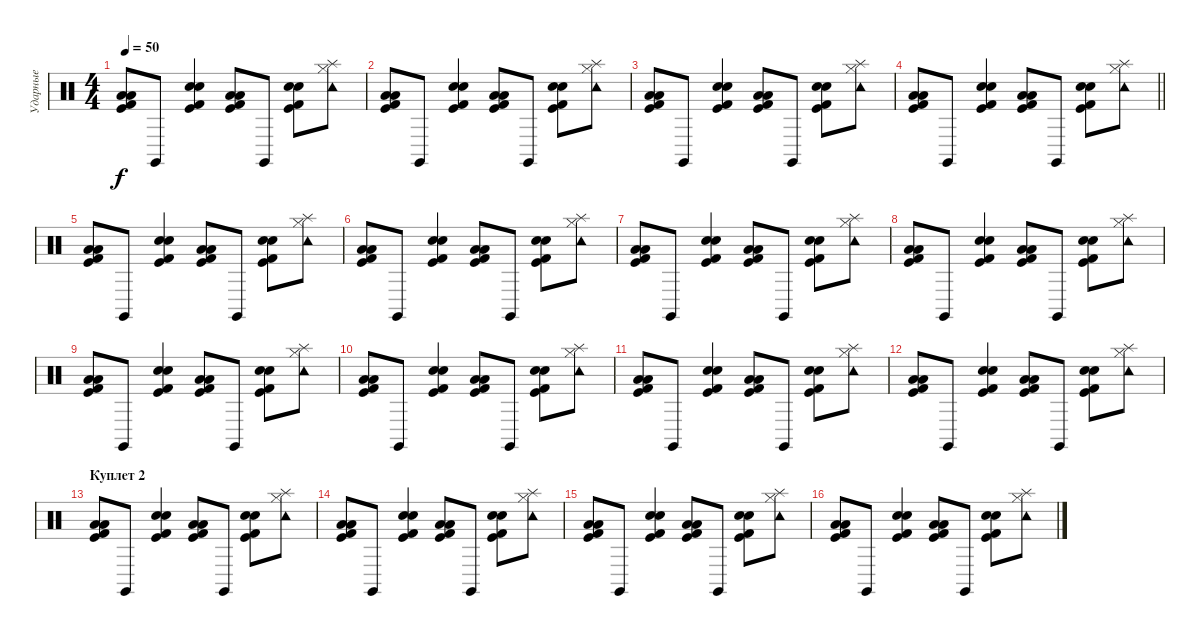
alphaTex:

\track ("Ударные" "Ударные") {instrument percussion}
\staff
\articulation defaults
\ts (4 4)
\tempo 50
\clef neutral
\ks c
("Kick (hit) 2" "Low Floor Tom (hit)" "Kick (hit)" "Low Tom (hit)").8{dy f} "Claves (hit)".8 ("Kick (hit) 2" "Electric Snare (hit)" "Kick (hit)" "Snare (hit) 2").4 ("Kick (hit) 2" "Low Floor Tom (hit)" "Kick (hit)" "Low Tom (hit)").8 "Claves (hit)".8 ("Kick (hit) 2" "Electric Snare (hit)" "Kick (hit)" "Snare (hit) 2").8 ("Hi-Hat (closed)" "Splash (hit)" "Tambourine (hit)").8 |
("Kick (hit) 2" "Low Floor Tom (hit)" "Kick (hit)" "Low Tom (hit)").8 "Claves (hit)".8 ("Kick (hit) 2" "Electric Snare (hit)" "Kick (hit)" "Snare (hit) 2").4 ("Kick (hit) 2" "Low Floor Tom (hit)" "Kick (hit)" "Low Tom (hit)").8 "Claves (hit)".8 ("Kick (hit) 2" "Electric Snare (hit)" "Kick (hit)" "Snare (hit) 2").8 ("Hi-Hat (closed)" "Splash (hit)" "Tambourine (hit)").8 |
("Kick (hit) 2" "Low Floor Tom (hit)" "Kick (hit)" "Low Tom (hit)").8 "Claves (hit)".8 ("Kick (hit) 2" "Electric Snare (hit)" "Kick (hit)" "Snare (hit) 2").4 ("Kick (hit) 2" "Low Floor Tom (hit)" "Kick (hit)" "Low Tom (hit)").8 "Claves (hit)".8 ("Kick (hit) 2" "Electric Snare (hit)" "Kick (hit)" "Snare (hit) 2").8 ("Hi-Hat (closed)" "Splash (hit)" "Tambourine (hit)").8 |
\barLineRight lightlight
("Kick (hit) 2" "Low Floor Tom (hit)" "Kick (hit)" "Low Tom (hit)").8 "Claves (hit)".8 ("Kick (hit) 2" "Electric Snare (hit)" "Kick (hit)" "Snare (hit) 2").4 ("Kick (hit) 2" "Low Floor Tom (hit)" "Kick (hit)" "Low Tom (hit)").8 "Claves (hit)".8 ("Kick (hit) 2" "Electric Snare (hit)" "Kick (hit)" "Snare (hit) 2").8 ("Hi-Hat (closed)" "Splash (hit)" "Tambourine (hit)").8 |
("Kick (hit) 2" "Low Floor Tom (hit)" "Kick (hit)" "Low Tom (hit)").8 "Claves (hit)".8 ("Kick (hit) 2" "Electric Snare (hit)" "Kick (hit)" "Snare (hit) 2").4 ("Kick (hit) 2" "Low Floor Tom (hit)" "Kick (hit)" "Low Tom (hit)").8 "Claves (hit)".8 ("Kick (hit) 2" "Electric Snare (hit)" "Kick (hit)" "Snare (hit) 2").8 ("Hi-Hat (closed)" "Splash (hit)" "Tambourine (hit)").8 |
("Kick (hit) 2" "Low Floor Tom (hit)" "Kick (hit)" "Low Tom (hit)").8 "Claves (hit)".8 ("Kick (hit) 2" "Electric Snare (hit)" "Kick (hit)" "Snare (hit) 2").4 ("Kick (hit) 2" "Low Floor Tom (hit)" "Kick (hit)" "Low Tom (hit)").8 "Claves (hit)".8 ("Kick (hit) 2" "Electric Snare (hit)" "Kick (hit)" "Snare (hit) 2").8 ("Hi-Hat (closed)" "Splash (hit)" "Tambourine (hit)").8 |
("Kick (hit) 2" "Low Floor Tom (hit)" "Kick (hit)" "Low Tom (hit)").8 "Claves (hit)".8 ("Kick (hit) 2" "Electric Snare (hit)" "Kick (hit)" "Snare (hit) 2").4 ("Kick (hit) 2" "Low Floor Tom (hit)" "Kick (hit)" "Low Tom (hit)").8 "Claves (hit)".8 ("Kick (hit) 2" "Electric Snare (hit)" "Kick (hit)" "Snare (hit) 2").8 ("Hi-Hat (closed)" "Splash (hit)" "Tambourine (hit)").8 |
("Kick (hit) 2" "Low Floor Tom (hit)" "Kick (hit)" "Low Tom (hit)").8 "Claves (hit)".8 ("Kick (hit) 2" "Electric Snare (hit)" "Kick (hit)" "Snare (hit) 2").4 ("Kick (hit) 2" "Low Floor Tom (hit)" "Kick (hit)" "Low Tom (hit)").8 "Claves (hit)".8 ("Kick (hit) 2" "Electric Snare (hit)" "Kick (hit)" "Snare (hit) 2").8 ("Hi-Hat (closed)" "Splash (hit)" "Tambourine (hit)").8 |
("Kick (hit) 2" "Low Floor Tom (hit)" "Kick (hit)" "Low Tom (hit)").8 "Claves (hit)".8 ("Kick (hit) 2" "Electric Snare (hit)" "Kick (hit)" "Snare (hit) 2").4 ("Kick (hit) 2" "Low Floor Tom (hit)" "Kick (hit)" "Low Tom (hit)").8 "Claves (hit)".8 ("Kick (hit) 2" "Electric Snare (hit)" "Kick (hit)" "Snare (hit) 2").8 ("Hi-Hat (closed)" "Splash (hit)" "Tambourine (hit)").8 |
("Kick (hit) 2" "Low Floor Tom (hit)" "Kick (hit)" "Low Tom (hit)").8 "Claves (hit)".8 ("Kick (hit) 2" "Electric Snare (hit)" "Kick (hit)" "Snare (hit) 2").4 ("Kick (hit) 2" "Low Floor Tom (hit)" "Kick (hit)" "Low Tom (hit)").8 "Claves (hit)".8 ("Kick (hit) 2" "Electric Snare (hit)" "Kick (hit)" "Snare (hit) 2").8 ("Hi-Hat (closed)" "Splash (hit)" "Tambourine (hit)").8 |
("Kick (hit) 2" "Low Floor Tom (hit)" "Kick (hit)" "Low Tom (hit)").8 "Claves (hit)".8 ("Kick (hit) 2" "Electric Snare (hit)" "Kick (hit)" "Snare (hit) 2").4 ("Kick (hit) 2" "Low Floor Tom (hit)" "Kick (hit)" "Low Tom (hit)").8 "Claves (hit)".8 ("Kick (hit) 2" "Electric Snare (hit)" "Kick (hit)" "Snare (hit) 2").8 ("Hi-Hat (closed)" "Splash (hit)" "Tambourine (hit)").8 |
("Kick (hit) 2" "Low Floor Tom (hit)" "Kick (hit)" "Low Tom (hit)").8 "Claves (hit)".8 ("Kick (hit) 2" "Electric Snare (hit)" "Kick (hit)" "Snare (hit) 2").4 ("Kick (hit) 2" "Low Floor Tom (hit)" "Kick (hit)" "Low Tom (hit)").8 "Claves (hit)".8 ("Kick (hit) 2" "Electric Snare (hit)" "Kick (hit)" "Snare (hit) 2").8 ("Hi-Hat (closed)" "Splash (hit)" "Tambourine (hit)").8 |
\section ("" "Куплет 2")
("Kick (hit) 2" "Low Floor Tom (hit)" "Kick (hit)" "Low Tom (hit)").8 "Claves (hit)".8 ("Kick (hit) 2" "Electric Snare (hit)" "Kick (hit)" "Snare (hit) 2").4 ("Kick (hit) 2" "Low Floor Tom (hit)" "Kick (hit)" "Low Tom (hit)").8 "Claves (hit)".8 ("Kick (hit) 2" "Electric Snare (hit)" "Kick (hit)" "Snare (hit) 2").8 ("Hi-Hat (closed)" "Splash (hit)" "Tambourine (hit)").8 |
("Kick (hit) 2" "Low Floor Tom (hit)" "Kick (hit)" "Low Tom (hit)").8 "Claves (hit)".8 ("Kick (hit) 2" "Electric Snare (hit)" "Kick (hit)" "Snare (hit) 2").4 ("Kick (hit) 2" "Low Floor Tom (hit)" "Kick (hit)" "Low Tom (hit)").8 "Claves (hit)".8 ("Kick (hit) 2" "Electric Snare (hit)" "Kick (hit)" "Snare (hit) 2").8 ("Hi-Hat (closed)" "Splash (hit)" "Tambourine (hit)").8 |
("Kick (hit) 2" "Low Floor Tom (hit)" "Kick (hit)" "Low Tom (hit)").8 "Claves (hit)".8 ("Kick (hit) 2" "Electric Snare (hit)" "Kick (hit)" "Snare (hit) 2").4 ("Kick (hit) 2" "Low Floor Tom (hit)" "Kick (hit)" "Low Tom (hit)").8 "Claves (hit)".8 ("Kick (hit) 2" "Electric Snare (hit)" "Kick (hit)" "Snare (hit) 2").8 ("Hi-Hat (closed)" "Splash (hit)" "Tambourine (hit)").8 |
("Kick (hit) 2" "Low Floor Tom (hit)" "Kick (hit)" "Low Tom (hit)").8 "Claves (hit)".8 ("Kick (hit) 2" "Electric Snare (hit)" "Kick (hit)" "Snare (hit) 2").4 ("Kick (hit) 2" "Low Floor Tom (hit)" "Kick (hit)" "Low Tom (hit)").8 "Claves (hit)".8 ("Kick (hit) 2" "Electric Snare (hit)" "Kick (hit)" "Snare (hit) 2").8 ("Hi-Hat (closed)" "Splash (hit)" "Tambourine (hit)").8
